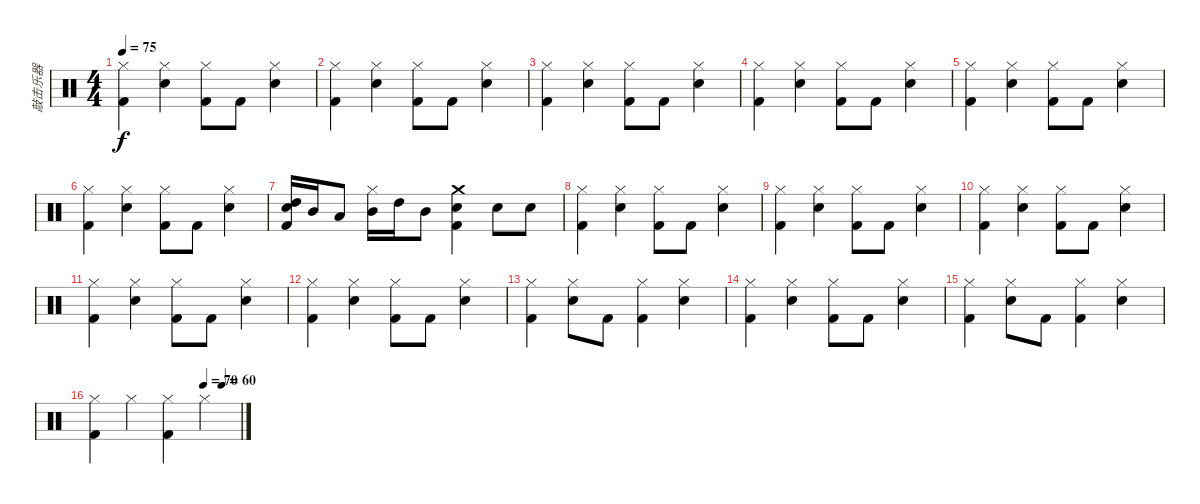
\track ("敲击乐器" "敲击乐器") {instrument percussion}
\staff {score}
\articulation defaults
\ts (4 4)
\tempo 75
\clef neutral
\ks c
("Hi-Hat (closed)" "Kick (hit) 2").4{dy f} ("Hi-Hat (closed)" "Electric Snare (hit)").4 ("Hi-Hat (closed)" "Kick (hit) 2").8 "Kick (hit) 2".8 ("Hi-Hat (closed)" "Electric Snare (hit)").4 |
("Hi-Hat (closed)" "Kick (hit) 2").4 ("Hi-Hat (closed)" "Electric Snare (hit)").4 ("Hi-Hat (closed)" "Kick (hit) 2").8 "Kick (hit) 2".8 ("Hi-Hat (closed)" "Electric Snare (hit)").4 |
("Hi-Hat (closed)" "Kick (hit) 2").4 ("Hi-Hat (closed)" "Electric Snare (hit)").4 ("Hi-Hat (closed)" "Kick (hit) 2").8 "Kick (hit) 2".8 ("Hi-Hat (closed)" "Electric Snare (hit)").4 |
("Hi-Hat (closed)" "Kick (hit) 2").4 ("Hi-Hat (closed)" "Electric Snare (hit)").4 ("Hi-Hat (closed)" "Kick (hit) 2").8 "Kick (hit) 2".8 ("Hi-Hat (closed)" "Electric Snare (hit)").4 |
("Hi-Hat (closed)" "Kick (hit) 2").4 ("Hi-Hat (closed)" "Electric Snare (hit)").4 ("Hi-Hat (closed)" "Kick (hit) 2").8 "Kick (hit) 2".8 ("Hi-Hat (closed)" "Electric Snare (hit)").4 |
("Hi-Hat (closed)" "Kick (hit) 2").4 ("Hi-Hat (closed)" "Electric Snare (hit)").4 ("Hi-Hat (closed)" "Kick (hit) 2").8 "Kick (hit) 2".8 ("Hi-Hat (closed)" "Electric Snare (hit)").4 |
("Electric Snare (hit)" "High Tom (hit)" "Kick (hit) 2").16 "Mid Tom (hit)".16 "Low Tom (hit)".8 ("Hi-Hat (closed)" "Mid Tom (hit)").16 "High Tom (hit)".16 "Mid Tom (hit)".8 ("Crash medium (hit)" "Electric Snare (hit)" "Kick (hit) 2").4 "Hand Clap (hit)".8 "Hand Clap (hit)".8 |
("Hi-Hat (closed)" "Kick (hit) 2").4 ("Hi-Hat (closed)" "Electric Snare (hit)").4 ("Hi-Hat (closed)" "Kick (hit) 2").8 "Kick (hit) 2".8 ("Hi-Hat (closed)" "Electric Snare (hit)").4 |
("Hi-Hat (closed)" "Kick (hit) 2").4 ("Hi-Hat (closed)" "Electric Snare (hit)").4 ("Hi-Hat (closed)" "Kick (hit) 2").8 "Kick (hit) 2".8 ("Hi-Hat (closed)" "Electric Snare (hit)").4 |
("Hi-Hat (closed)" "Kick (hit) 2").4 ("Hi-Hat (closed)" "Electric Snare (hit)").4 ("Hi-Hat (closed)" "Kick (hit) 2").8 "Kick (hit) 2".8 ("Hi-Hat (closed)" "Electric Snare (hit)").4 |
("Hi-Hat (closed)" "Kick (hit) 2").4 ("Hi-Hat (closed)" "Electric Snare (hit)").4 ("Hi-Hat (closed)" "Kick (hit) 2").8 "Kick (hit) 2".8 ("Hi-Hat (closed)" "Electric Snare (hit)").4 |
("Hi-Hat (closed)" "Kick (hit) 2").4 ("Hi-Hat (closed)" "Electric Snare (hit)").4 ("Hi-Hat (closed)" "Kick (hit) 2").8 "Kick (hit) 2".8 ("Hi-Hat (closed)" "Electric Snare (hit)").4 |
("Hi-Hat (closed)" "Kick (hit) 2").4 ("Hi-Hat (closed)" "Electric Snare (hit)").8 "Kick (hit) 2".8 ("Hi-Hat (closed)" "Kick (hit) 2").4 ("Hi-Hat (closed)" "Electric Snare (hit)").4 |
("Hi-Hat (closed)" "Kick (hit) 2").4 ("Hi-Hat (closed)" "Electric Snare (hit)").4 ("Hi-Hat (closed)" "Kick (hit) 2").8 "Kick (hit) 2".8 ("Hi-Hat (closed)" "Electric Snare (hit)").4 |
("Hi-Hat (closed)" "Kick (hit) 2").4 ("Hi-Hat (closed)" "Electric Snare (hit)").8 "Kick (hit) 2".8 ("Hi-Hat (closed)" "Kick (hit) 2").4 ("Hi-Hat (closed)" "Electric Snare (hit)").4 |
\tempo (70 0.75)
\tempo (60 0.875)
("Hi-Hat (closed)" "Kick (hit) 2").4 "Hi-Hat (closed)".4 ("Hi-Hat (closed)" "Kick (hit) 2").4 "Hi-Hat (closed)".4
